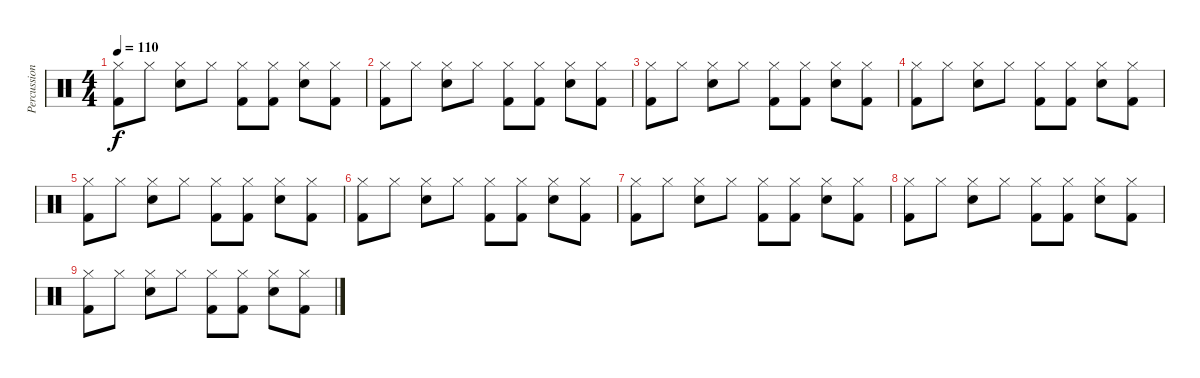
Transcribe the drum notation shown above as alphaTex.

\track ("Percussions" "Percussion") {instrument percussion}
\staff {score}
\articulation defaults
\ts (4 4)
\tempo 110
\clef neutral
\ks c
("Hi-Hat (closed)" "Kick (hit) 2").8{dy f} "Hi-Hat (closed)".8 ("Hi-Hat (closed)" "Electric Snare (hit)").8 "Hi-Hat (closed)".8 ("Hi-Hat (closed)" "Kick (hit) 2").8 ("Hi-Hat (closed)" "Kick (hit) 2").8 ("Hi-Hat (closed)" "Electric Snare (hit)").8 ("Hi-Hat (closed)" "Kick (hit) 2").8 |
("Hi-Hat (closed)" "Kick (hit) 2").8 "Hi-Hat (closed)".8 ("Hi-Hat (closed)" "Electric Snare (hit)").8 "Hi-Hat (closed)".8 ("Hi-Hat (closed)" "Kick (hit) 2").8 ("Hi-Hat (closed)" "Kick (hit) 2").8 ("Hi-Hat (closed)" "Electric Snare (hit)").8 ("Hi-Hat (closed)" "Kick (hit) 2").8 |
("Hi-Hat (closed)" "Kick (hit) 2").8 "Hi-Hat (closed)".8 ("Hi-Hat (closed)" "Electric Snare (hit)").8 "Hi-Hat (closed)".8 ("Hi-Hat (closed)" "Kick (hit) 2").8 ("Hi-Hat (closed)" "Kick (hit) 2").8 ("Hi-Hat (closed)" "Electric Snare (hit)").8 ("Hi-Hat (closed)" "Kick (hit) 2").8 |
("Hi-Hat (closed)" "Kick (hit) 2").8 "Hi-Hat (closed)".8 ("Hi-Hat (closed)" "Electric Snare (hit)").8 "Hi-Hat (closed)".8 ("Hi-Hat (closed)" "Kick (hit) 2").8 ("Hi-Hat (closed)" "Kick (hit) 2").8 ("Hi-Hat (closed)" "Electric Snare (hit)").8 ("Hi-Hat (closed)" "Kick (hit) 2").8 |
("Hi-Hat (closed)" "Kick (hit) 2").8 "Hi-Hat (closed)".8 ("Hi-Hat (closed)" "Electric Snare (hit)").8 "Hi-Hat (closed)".8 ("Hi-Hat (closed)" "Kick (hit) 2").8 ("Hi-Hat (closed)" "Kick (hit) 2").8 ("Hi-Hat (closed)" "Electric Snare (hit)").8 ("Hi-Hat (closed)" "Kick (hit) 2").8 |
("Hi-Hat (closed)" "Kick (hit) 2").8 "Hi-Hat (closed)".8 ("Hi-Hat (closed)" "Electric Snare (hit)").8 "Hi-Hat (closed)".8 ("Hi-Hat (closed)" "Kick (hit) 2").8 ("Hi-Hat (closed)" "Kick (hit) 2").8 ("Hi-Hat (closed)" "Electric Snare (hit)").8 ("Hi-Hat (closed)" "Kick (hit) 2").8 |
("Hi-Hat (closed)" "Kick (hit) 2").8 "Hi-Hat (closed)".8 ("Hi-Hat (closed)" "Electric Snare (hit)").8 "Hi-Hat (closed)".8 ("Hi-Hat (closed)" "Kick (hit) 2").8 ("Hi-Hat (closed)" "Kick (hit) 2").8 ("Hi-Hat (closed)" "Electric Snare (hit)").8 ("Hi-Hat (closed)" "Kick (hit) 2").8 |
("Hi-Hat (closed)" "Kick (hit) 2").8 "Hi-Hat (closed)".8 ("Hi-Hat (closed)" "Electric Snare (hit)").8 "Hi-Hat (closed)".8 ("Hi-Hat (closed)" "Kick (hit) 2").8 ("Hi-Hat (closed)" "Kick (hit) 2").8 ("Hi-Hat (closed)" "Electric Snare (hit)").8 ("Hi-Hat (closed)" "Kick (hit) 2").8 |
("Hi-Hat (closed)" "Kick (hit) 2").8 "Hi-Hat (closed)".8 ("Hi-Hat (closed)" "Electric Snare (hit)").8 "Hi-Hat (closed)".8 ("Hi-Hat (closed)" "Kick (hit) 2").8 ("Hi-Hat (closed)" "Kick (hit) 2").8 ("Hi-Hat (closed)" "Electric Snare (hit)").8 ("Hi-Hat (closed)" "Kick (hit) 2").8
